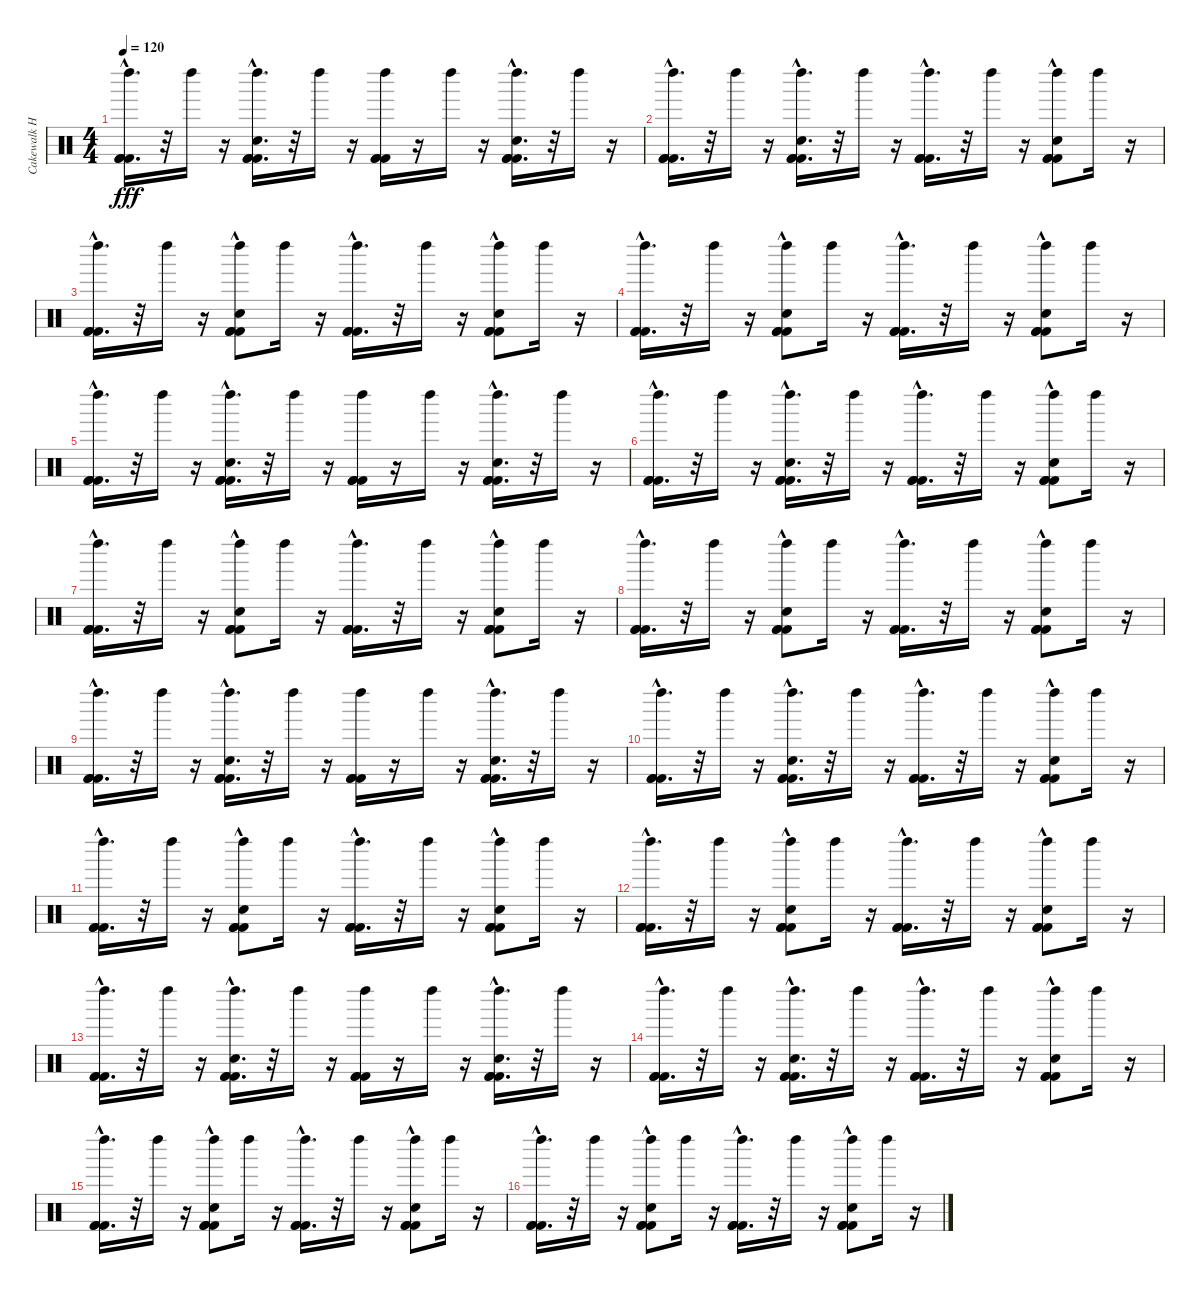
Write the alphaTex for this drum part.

\track ("Cakewalk Home Studio 5.0" "Cakewalk H") {instrument percussion}
\staff {score}
\articulation defaults
\ts (4 4)
\tempo 120
\clef neutral
\ks c
("Kick (hit) 2"{hac} "Left Maraca (hit)" "Kick (hit) 2"{hac} "Kick (hit) 2"{hac}).16{d dy fff} r.32 "Left Maraca (hit)".16 r.16 ("Left Maraca (hit)" "Kick (hit) 2"{hac} "Hand Clap (hit)"{hac} "Kick (hit) 2"{hac} "Kick (hit) 2"{hac}).16{d} r.32 "Left Maraca (hit)".16 r.16 ("Left Maraca (hit)" "Kick (hit) 2" "Kick (hit) 2" "Kick (hit) 2").16 r.16 "Left Maraca (hit)".16 r.16 ("Hand Clap (hit)"{hac} "Left Maraca (hit)" "Kick (hit) 2"{hac} "Kick (hit) 2"{hac} "Kick (hit) 2"{hac}).16{d} r.32 "Left Maraca (hit)".16 r.16 |
("Kick (hit) 2"{hac} "Left Maraca (hit)" "Kick (hit) 2"{hac} "Kick (hit) 2"{hac}).16{d} r.32 "Left Maraca (hit)".16 r.16 ("Kick (hit) 2"{hac} "Left Maraca (hit)" "Hand Clap (hit)"{hac} "Kick (hit) 2"{hac} "Kick (hit) 2"{hac}).16{d} r.32 "Left Maraca (hit)".16 r.16 ("Kick (hit) 2"{hac} "Left Maraca (hit)" "Kick (hit) 2"{hac} "Kick (hit) 2"{hac}).16{d} r.32 "Left Maraca (hit)".16 r.16 ("Kick (hit) 2"{hac} "Left Maraca (hit)" "Hand Clap (hit)" "Kick (hit) 2"{hac} "Kick (hit) 2"{hac}).8 "Left Maraca (hit)".16 r.16 |
("Left Maraca (hit)" "Kick (hit) 2"{hac} "Kick (hit) 2"{hac} "Kick (hit) 2"{hac}).16{d} r.32 "Left Maraca (hit)".16 r.16 ("Kick (hit) 2"{hac} "Left Maraca (hit)" "Hand Clap (hit)" "Kick (hit) 2"{hac} "Kick (hit) 2"{hac}).8 "Left Maraca (hit)".16 r.16 ("Kick (hit) 2"{hac} "Left Maraca (hit)" "Kick (hit) 2"{hac} "Kick (hit) 2"{hac}).16{d} r.32 "Left Maraca (hit)".16 r.16 ("Hand Clap (hit)" "Kick (hit) 2"{hac} "Left Maraca (hit)" "Kick (hit) 2"{hac} "Kick (hit) 2"{hac}).8 "Left Maraca (hit)".16 r.16 |
("Kick (hit) 2"{hac} "Left Maraca (hit)" "Kick (hit) 2"{hac} "Kick (hit) 2"{hac}).16{d} r.32 "Left Maraca (hit)".16 r.16 ("Kick (hit) 2"{hac} "Hand Clap (hit)" "Left Maraca (hit)" "Kick (hit) 2"{hac} "Kick (hit) 2"{hac}).8 "Left Maraca (hit)".16 r.16 ("Kick (hit) 2"{hac} "Left Maraca (hit)" "Kick (hit) 2"{hac} "Kick (hit) 2"{hac}).16{d} r.32 "Left Maraca (hit)".16 r.16 ("Kick (hit) 2"{hac} "Hand Clap (hit)" "Left Maraca (hit)" "Kick (hit) 2"{hac} "Kick (hit) 2"{hac}).8 "Left Maraca (hit)".16 r.16 |
("Kick (hit) 2"{hac} "Left Maraca (hit)" "Kick (hit) 2"{hac} "Kick (hit) 2"{hac}).16{d} r.32 "Left Maraca (hit)".16 r.16 ("Left Maraca (hit)" "Kick (hit) 2"{hac} "Hand Clap (hit)"{hac} "Kick (hit) 2"{hac} "Kick (hit) 2"{hac}).16{d} r.32 "Left Maraca (hit)".16 r.16 ("Left Maraca (hit)" "Kick (hit) 2" "Kick (hit) 2" "Kick (hit) 2").16 r.16 "Left Maraca (hit)".16 r.16 ("Hand Clap (hit)"{hac} "Left Maraca (hit)" "Kick (hit) 2"{hac} "Kick (hit) 2"{hac} "Kick (hit) 2"{hac}).16{d} r.32 "Left Maraca (hit)".16 r.16 |
("Kick (hit) 2"{hac} "Left Maraca (hit)" "Kick (hit) 2"{hac} "Kick (hit) 2"{hac}).16{d} r.32 "Left Maraca (hit)".16 r.16 ("Kick (hit) 2"{hac} "Left Maraca (hit)" "Hand Clap (hit)"{hac} "Kick (hit) 2"{hac} "Kick (hit) 2"{hac}).16{d} r.32 "Left Maraca (hit)".16 r.16 ("Kick (hit) 2"{hac} "Left Maraca (hit)" "Kick (hit) 2"{hac} "Kick (hit) 2"{hac}).16{d} r.32 "Left Maraca (hit)".16 r.16 ("Kick (hit) 2"{hac} "Left Maraca (hit)" "Hand Clap (hit)" "Kick (hit) 2"{hac} "Kick (hit) 2"{hac}).8 "Left Maraca (hit)".16 r.16 |
("Left Maraca (hit)" "Kick (hit) 2"{hac} "Kick (hit) 2"{hac} "Kick (hit) 2"{hac}).16{d} r.32 "Left Maraca (hit)".16 r.16 ("Kick (hit) 2"{hac} "Left Maraca (hit)" "Hand Clap (hit)" "Kick (hit) 2"{hac} "Kick (hit) 2"{hac}).8 "Left Maraca (hit)".16 r.16 ("Kick (hit) 2"{hac} "Left Maraca (hit)" "Kick (hit) 2"{hac} "Kick (hit) 2"{hac}).16{d} r.32 "Left Maraca (hit)".16 r.16 ("Hand Clap (hit)" "Kick (hit) 2"{hac} "Left Maraca (hit)" "Kick (hit) 2"{hac} "Kick (hit) 2"{hac}).8 "Left Maraca (hit)".16 r.16 |
("Kick (hit) 2"{hac} "Left Maraca (hit)" "Kick (hit) 2"{hac} "Kick (hit) 2"{hac}).16{d} r.32 "Left Maraca (hit)".16 r.16 ("Kick (hit) 2"{hac} "Hand Clap (hit)" "Left Maraca (hit)" "Kick (hit) 2"{hac} "Kick (hit) 2"{hac}).8 "Left Maraca (hit)".16 r.16 ("Kick (hit) 2"{hac} "Left Maraca (hit)" "Kick (hit) 2"{hac} "Kick (hit) 2"{hac}).16{d} r.32 "Left Maraca (hit)".16 r.16 ("Kick (hit) 2"{hac} "Hand Clap (hit)" "Left Maraca (hit)" "Kick (hit) 2"{hac} "Kick (hit) 2"{hac}).8 "Left Maraca (hit)".16 r.16 |
("Kick (hit) 2"{hac} "Left Maraca (hit)" "Kick (hit) 2"{hac} "Kick (hit) 2"{hac}).16{d} r.32 "Left Maraca (hit)".16 r.16 ("Left Maraca (hit)" "Kick (hit) 2"{hac} "Hand Clap (hit)"{hac} "Kick (hit) 2"{hac} "Kick (hit) 2"{hac}).16{d} r.32 "Left Maraca (hit)".16 r.16 ("Left Maraca (hit)" "Kick (hit) 2" "Kick (hit) 2" "Kick (hit) 2").16 r.16 "Left Maraca (hit)".16 r.16 ("Hand Clap (hit)"{hac} "Left Maraca (hit)" "Kick (hit) 2"{hac} "Kick (hit) 2"{hac} "Kick (hit) 2"{hac}).16{d} r.32 "Left Maraca (hit)".16 r.16 |
("Kick (hit) 2"{hac} "Left Maraca (hit)" "Kick (hit) 2"{hac} "Kick (hit) 2"{hac}).16{d} r.32 "Left Maraca (hit)".16 r.16 ("Kick (hit) 2"{hac} "Left Maraca (hit)" "Hand Clap (hit)"{hac} "Kick (hit) 2"{hac} "Kick (hit) 2"{hac}).16{d} r.32 "Left Maraca (hit)".16 r.16 ("Kick (hit) 2"{hac} "Left Maraca (hit)" "Kick (hit) 2"{hac} "Kick (hit) 2"{hac}).16{d} r.32 "Left Maraca (hit)".16 r.16 ("Kick (hit) 2"{hac} "Left Maraca (hit)" "Hand Clap (hit)" "Kick (hit) 2"{hac} "Kick (hit) 2"{hac}).8 "Left Maraca (hit)".16 r.16 |
("Left Maraca (hit)" "Kick (hit) 2"{hac} "Kick (hit) 2"{hac} "Kick (hit) 2"{hac}).16{d} r.32 "Left Maraca (hit)".16 r.16 ("Kick (hit) 2"{hac} "Left Maraca (hit)" "Hand Clap (hit)" "Kick (hit) 2"{hac} "Kick (hit) 2"{hac}).8 "Left Maraca (hit)".16 r.16 ("Kick (hit) 2"{hac} "Left Maraca (hit)" "Kick (hit) 2"{hac} "Kick (hit) 2"{hac}).16{d} r.32 "Left Maraca (hit)".16 r.16 ("Hand Clap (hit)" "Kick (hit) 2"{hac} "Left Maraca (hit)" "Kick (hit) 2"{hac} "Kick (hit) 2"{hac}).8 "Left Maraca (hit)".16 r.16 |
("Kick (hit) 2"{hac} "Left Maraca (hit)" "Kick (hit) 2"{hac} "Kick (hit) 2"{hac}).16{d} r.32 "Left Maraca (hit)".16 r.16 ("Kick (hit) 2"{hac} "Hand Clap (hit)" "Left Maraca (hit)" "Kick (hit) 2"{hac} "Kick (hit) 2"{hac}).8 "Left Maraca (hit)".16 r.16 ("Kick (hit) 2"{hac} "Left Maraca (hit)" "Kick (hit) 2"{hac} "Kick (hit) 2"{hac}).16{d} r.32 "Left Maraca (hit)".16 r.16 ("Kick (hit) 2"{hac} "Hand Clap (hit)" "Left Maraca (hit)" "Kick (hit) 2"{hac} "Kick (hit) 2"{hac}).8 "Left Maraca (hit)".16 r.16 |
("Kick (hit) 2"{hac} "Left Maraca (hit)" "Kick (hit) 2"{hac} "Kick (hit) 2"{hac}).16{d} r.32 "Left Maraca (hit)".16 r.16 ("Left Maraca (hit)" "Kick (hit) 2"{hac} "Hand Clap (hit)"{hac} "Kick (hit) 2"{hac} "Kick (hit) 2"{hac}).16{d} r.32 "Left Maraca (hit)".16 r.16 ("Left Maraca (hit)" "Kick (hit) 2" "Kick (hit) 2" "Kick (hit) 2").16 r.16 "Left Maraca (hit)".16 r.16 ("Hand Clap (hit)"{hac} "Left Maraca (hit)" "Kick (hit) 2"{hac} "Kick (hit) 2"{hac} "Kick (hit) 2"{hac}).16{d} r.32 "Left Maraca (hit)".16 r.16 |
("Kick (hit) 2"{hac} "Left Maraca (hit)" "Kick (hit) 2"{hac} "Kick (hit) 2"{hac}).16{d} r.32 "Left Maraca (hit)".16 r.16 ("Kick (hit) 2"{hac} "Left Maraca (hit)" "Hand Clap (hit)"{hac} "Kick (hit) 2"{hac} "Kick (hit) 2"{hac}).16{d} r.32 "Left Maraca (hit)".16 r.16 ("Kick (hit) 2"{hac} "Left Maraca (hit)" "Kick (hit) 2"{hac} "Kick (hit) 2"{hac}).16{d} r.32 "Left Maraca (hit)".16 r.16 ("Kick (hit) 2"{hac} "Left Maraca (hit)" "Hand Clap (hit)" "Kick (hit) 2"{hac} "Kick (hit) 2"{hac}).8 "Left Maraca (hit)".16 r.16 |
("Left Maraca (hit)" "Kick (hit) 2"{hac} "Kick (hit) 2"{hac} "Kick (hit) 2"{hac}).16{d} r.32 "Left Maraca (hit)".16 r.16 ("Kick (hit) 2"{hac} "Left Maraca (hit)" "Hand Clap (hit)" "Kick (hit) 2"{hac} "Kick (hit) 2"{hac}).8 "Left Maraca (hit)".16 r.16 ("Kick (hit) 2"{hac} "Left Maraca (hit)" "Kick (hit) 2"{hac} "Kick (hit) 2"{hac}).16{d} r.32 "Left Maraca (hit)".16 r.16 ("Hand Clap (hit)" "Kick (hit) 2"{hac} "Left Maraca (hit)" "Kick (hit) 2"{hac} "Kick (hit) 2"{hac}).8 "Left Maraca (hit)".16 r.16 |
("Kick (hit) 2"{hac} "Left Maraca (hit)" "Kick (hit) 2"{hac} "Kick (hit) 2"{hac}).16{d} r.32 "Left Maraca (hit)".16 r.16 ("Kick (hit) 2"{hac} "Hand Clap (hit)" "Left Maraca (hit)" "Kick (hit) 2"{hac} "Kick (hit) 2"{hac}).8 "Left Maraca (hit)".16 r.16 ("Kick (hit) 2"{hac} "Left Maraca (hit)" "Kick (hit) 2"{hac} "Kick (hit) 2"{hac}).16{d} r.32 "Left Maraca (hit)".16 r.16 ("Kick (hit) 2"{hac} "Hand Clap (hit)" "Left Maraca (hit)" "Kick (hit) 2"{hac} "Kick (hit) 2"{hac}).8 "Left Maraca (hit)".16 r.16
